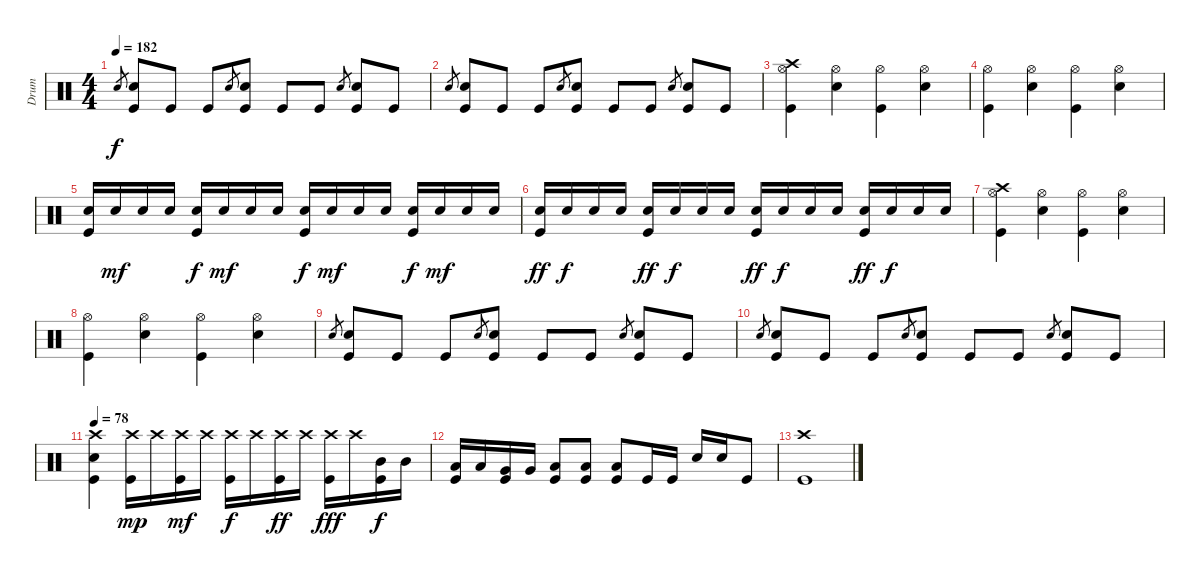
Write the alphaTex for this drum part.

\track ("Drum" "Drum") {instrument percussion}
\staff {score}
\articulation defaults
\ts (4 4)
\tempo 182
\clef neutral
\ks c "Snare (hit) 2".8{gr dy f}
("Snare (hit) 2" "Kick (hit)").8 "Kick (hit)".8 "Kick (hit)".8 "Snare (hit) 2".8{gr} ("Snare (hit) 2" "Kick (hit)").8 "Kick (hit)".8 "Kick (hit)".8 "Snare (hit) 2".8{gr} ("Snare (hit) 2" "Kick (hit)").8 "Kick (hit)".8 |
"Snare (hit) 2".8{gr} ("Snare (hit) 2" "Kick (hit)").8 "Kick (hit)".8 "Kick (hit)".8 "Snare (hit) 2".8{gr} ("Snare (hit) 2" "Kick (hit)").8 "Kick (hit)".8 "Kick (hit)".8 "Snare (hit) 2".8{gr} ("Snare (hit) 2" "Kick (hit)").8 "Kick (hit)".8 |
("Crash high (hit)" "Hi-Hat (open)" "Kick (hit)").4 ("Snare (hit) 2" "Hi-Hat (open)").4 ("Hi-Hat (open)" "Kick (hit)").4 ("Snare (hit) 2" "Hi-Hat (open)").4 |
("Hi-Hat (open)" "Kick (hit)").4 ("Snare (hit) 2" "Hi-Hat (open)").4 ("Hi-Hat (open)" "Kick (hit)").4 ("Snare (hit) 2" "Hi-Hat (open)").4 |
("Snare (hit) 2" "Kick (hit)").16 "Snare (hit) 2".16{dy mf} "Snare (hit) 2".16 "Snare (hit) 2".16 ("Snare (hit) 2" "Kick (hit)").16{dy f} "Snare (hit) 2".16{dy mf} "Snare (hit) 2".16 "Snare (hit) 2".16 ("Snare (hit) 2" "Kick (hit)").16{dy f} "Snare (hit) 2".16{dy mf} "Snare (hit) 2".16 "Snare (hit) 2".16 ("Snare (hit) 2" "Kick (hit)").16{dy f} "Snare (hit) 2".16{dy mf} "Snare (hit) 2".16 "Snare (hit) 2".16 |
("Snare (hit) 2" "Kick (hit)").16{dy ff} "Snare (hit) 2".16{dy f} "Snare (hit) 2".16 "Snare (hit) 2".16 ("Snare (hit) 2" "Kick (hit)").16{dy ff} "Snare (hit) 2".16{dy f} "Snare (hit) 2".16 "Snare (hit) 2".16 ("Snare (hit) 2" "Kick (hit)").16{dy ff} "Snare (hit) 2".16{dy f} "Snare (hit) 2".16 "Snare (hit) 2".16 ("Snare (hit) 2" "Kick (hit)").16{dy ff} "Snare (hit) 2".16{dy f} "Snare (hit) 2".16 "Snare (hit) 2".16 |
("Crash high (hit)" "Hi-Hat (open)" "Kick (hit)").4 ("Snare (hit) 2" "Hi-Hat (open)").4 ("Hi-Hat (open)" "Kick (hit)").4 ("Snare (hit) 2" "Hi-Hat (open)").4 |
("Hi-Hat (open)" "Kick (hit)").4 ("Snare (hit) 2" "Hi-Hat (open)").4 ("Hi-Hat (open)" "Kick (hit)").4 ("Snare (hit) 2" "Hi-Hat (open)").4 |
"Snare (hit) 2".8{gr} ("Snare (hit) 2" "Kick (hit)").8 "Kick (hit)".8 "Kick (hit)".8 "Snare (hit) 2".8{gr} ("Snare (hit) 2" "Kick (hit)").8 "Kick (hit)".8 "Kick (hit)".8 "Snare (hit) 2".8{gr} ("Snare (hit) 2" "Kick (hit)").8 "Kick (hit)".8 |
"Snare (hit) 2".8{gr} ("Snare (hit) 2" "Kick (hit)").8 "Kick (hit)".8 "Kick (hit)".8 "Snare (hit) 2".8{gr} ("Snare (hit) 2" "Kick (hit)").8 "Kick (hit)".8 "Kick (hit)".8 "Snare (hit) 2".8{gr} ("Snare (hit) 2" "Kick (hit)").8 "Kick (hit)".8 |
\tempo 78
("Crash high (hit)" "Snare (hit) 2" "Kick (hit)").4 ("Crash high (hit)" "Kick (hit)").16{dy mp} "Crash high (hit)".16 ("Crash high (hit)" "Kick (hit)").16{dy mf} "Crash high (hit)".16 ("Crash high (hit)" "Kick (hit)").16{dy f} "Crash high (hit)".16 ("Crash high (hit)" "Kick (hit)").16{dy ff} "Crash high (hit)".16 ("Crash high (hit)" "Kick (hit)").16{dy fff} "Crash high (hit)".16 ("Mid Tom (hit)" "Kick (hit)").16{dy f} "Mid Tom (hit)".16 |
("Low Tom (hit)" "Kick (hit)").16 "Low Tom (hit)".16 ("Very Low Tom (hit)" "Kick (hit)").16 "Very Low Tom (hit)".16 ("Low Floor Tom (hit)" "Kick (hit)").8 ("Low Floor Tom (hit)" "Kick (hit)").8 ("Low Floor Tom (hit)" "Kick (hit)").8 "Kick (hit)".16 "Kick (hit)".16 "Snare (hit) 2".16 "Snare (hit) 2".16 "Kick (hit)".8 |
("Crash high (hit)" "Kick (hit)").1
